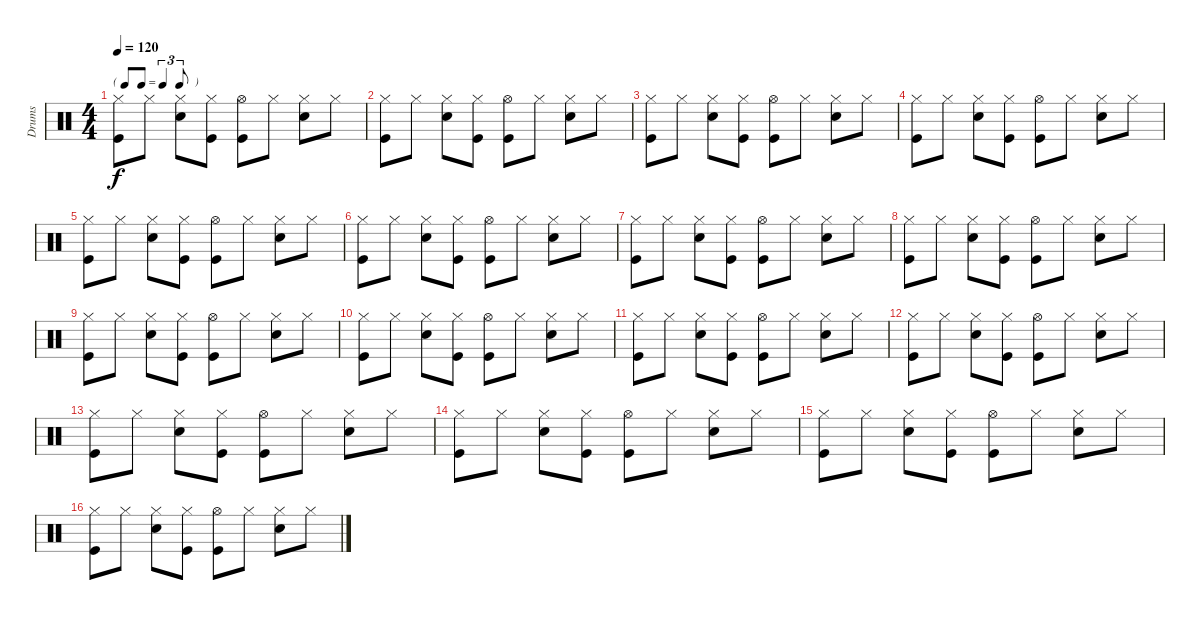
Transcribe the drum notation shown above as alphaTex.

\track ("Drums" "Drums") {instrument percussion}
\staff {score}
\articulation defaults
\ts (4 4)
\tf triplet8th
\tempo 120
\clef neutral
\ks c
("Hi-Hat (closed)" "Kick (hit)").8{dy f} "Hi-Hat (closed)".8 ("Hi-Hat (closed)" "Snare (hit) 2").8 ("Hi-Hat (closed)" "Kick (hit)").8 ("Hi-Hat (open)" "Kick (hit)").8 "Hi-Hat (closed)".8 ("Hi-Hat (closed)" "Snare (hit) 2").8 "Hi-Hat (closed)".8 |
("Hi-Hat (closed)" "Kick (hit)").8 "Hi-Hat (closed)".8 ("Hi-Hat (closed)" "Snare (hit) 2").8 ("Hi-Hat (closed)" "Kick (hit)").8 ("Hi-Hat (open)" "Kick (hit)").8 "Hi-Hat (closed)".8 ("Hi-Hat (closed)" "Snare (hit) 2").8 "Hi-Hat (closed)".8 |
("Hi-Hat (closed)" "Kick (hit)").8 "Hi-Hat (closed)".8 ("Hi-Hat (closed)" "Snare (hit) 2").8 ("Hi-Hat (closed)" "Kick (hit)").8 ("Hi-Hat (open)" "Kick (hit)").8 "Hi-Hat (closed)".8 ("Hi-Hat (closed)" "Snare (hit) 2").8 "Hi-Hat (closed)".8 |
("Hi-Hat (closed)" "Kick (hit)").8 "Hi-Hat (closed)".8 ("Hi-Hat (closed)" "Snare (hit) 2").8 ("Hi-Hat (closed)" "Kick (hit)").8 ("Hi-Hat (open)" "Kick (hit)").8 "Hi-Hat (closed)".8 ("Hi-Hat (closed)" "Snare (hit) 2").8 "Hi-Hat (closed)".8 |
("Hi-Hat (closed)" "Kick (hit)").8 "Hi-Hat (closed)".8 ("Hi-Hat (closed)" "Snare (hit) 2").8 ("Hi-Hat (closed)" "Kick (hit)").8 ("Hi-Hat (open)" "Kick (hit)").8 "Hi-Hat (closed)".8 ("Hi-Hat (closed)" "Snare (hit) 2").8 "Hi-Hat (closed)".8 |
("Hi-Hat (closed)" "Kick (hit)").8 "Hi-Hat (closed)".8 ("Hi-Hat (closed)" "Snare (hit) 2").8 ("Hi-Hat (closed)" "Kick (hit)").8 ("Hi-Hat (open)" "Kick (hit)").8 "Hi-Hat (closed)".8 ("Hi-Hat (closed)" "Snare (hit) 2").8 "Hi-Hat (closed)".8 |
("Hi-Hat (closed)" "Kick (hit)").8 "Hi-Hat (closed)".8 ("Hi-Hat (closed)" "Snare (hit) 2").8 ("Hi-Hat (closed)" "Kick (hit)").8 ("Hi-Hat (open)" "Kick (hit)").8 "Hi-Hat (closed)".8 ("Hi-Hat (closed)" "Snare (hit) 2").8 "Hi-Hat (closed)".8 |
("Hi-Hat (closed)" "Kick (hit)").8 "Hi-Hat (closed)".8 ("Hi-Hat (closed)" "Snare (hit) 2").8 ("Hi-Hat (closed)" "Kick (hit)").8 ("Hi-Hat (open)" "Kick (hit)").8 "Hi-Hat (closed)".8 ("Hi-Hat (closed)" "Snare (hit) 2").8 "Hi-Hat (closed)".8 |
("Hi-Hat (closed)" "Kick (hit)").8 "Hi-Hat (closed)".8 ("Hi-Hat (closed)" "Snare (hit) 2").8 ("Hi-Hat (closed)" "Kick (hit)").8 ("Hi-Hat (open)" "Kick (hit)").8 "Hi-Hat (closed)".8 ("Hi-Hat (closed)" "Snare (hit) 2").8 "Hi-Hat (closed)".8 |
("Hi-Hat (closed)" "Kick (hit)").8 "Hi-Hat (closed)".8 ("Hi-Hat (closed)" "Snare (hit) 2").8 ("Hi-Hat (closed)" "Kick (hit)").8 ("Hi-Hat (open)" "Kick (hit)").8 "Hi-Hat (closed)".8 ("Hi-Hat (closed)" "Snare (hit) 2").8 "Hi-Hat (closed)".8 |
("Hi-Hat (closed)" "Kick (hit)").8 "Hi-Hat (closed)".8 ("Hi-Hat (closed)" "Snare (hit) 2").8 ("Hi-Hat (closed)" "Kick (hit)").8 ("Hi-Hat (open)" "Kick (hit)").8 "Hi-Hat (closed)".8 ("Hi-Hat (closed)" "Snare (hit) 2").8 "Hi-Hat (closed)".8 |
("Hi-Hat (closed)" "Kick (hit)").8 "Hi-Hat (closed)".8 ("Hi-Hat (closed)" "Snare (hit) 2").8 ("Hi-Hat (closed)" "Kick (hit)").8 ("Hi-Hat (open)" "Kick (hit)").8 "Hi-Hat (closed)".8 ("Hi-Hat (closed)" "Snare (hit) 2").8 "Hi-Hat (closed)".8 |
("Hi-Hat (closed)" "Kick (hit)").8 "Hi-Hat (closed)".8 ("Hi-Hat (closed)" "Snare (hit) 2").8 ("Hi-Hat (closed)" "Kick (hit)").8 ("Hi-Hat (open)" "Kick (hit)").8 "Hi-Hat (closed)".8 ("Hi-Hat (closed)" "Snare (hit) 2").8 "Hi-Hat (closed)".8 |
("Hi-Hat (closed)" "Kick (hit)").8 "Hi-Hat (closed)".8 ("Hi-Hat (closed)" "Snare (hit) 2").8 ("Hi-Hat (closed)" "Kick (hit)").8 ("Hi-Hat (open)" "Kick (hit)").8 "Hi-Hat (closed)".8 ("Hi-Hat (closed)" "Snare (hit) 2").8 "Hi-Hat (closed)".8 |
("Hi-Hat (closed)" "Kick (hit)").8 "Hi-Hat (closed)".8 ("Hi-Hat (closed)" "Snare (hit) 2").8 ("Hi-Hat (closed)" "Kick (hit)").8 ("Hi-Hat (open)" "Kick (hit)").8 "Hi-Hat (closed)".8 ("Hi-Hat (closed)" "Snare (hit) 2").8 "Hi-Hat (closed)".8 |
("Hi-Hat (closed)" "Kick (hit)").8 "Hi-Hat (closed)".8 ("Hi-Hat (closed)" "Snare (hit) 2").8 ("Hi-Hat (closed)" "Kick (hit)").8 ("Hi-Hat (open)" "Kick (hit)").8 "Hi-Hat (closed)".8 ("Hi-Hat (closed)" "Snare (hit) 2").8 "Hi-Hat (closed)".8
